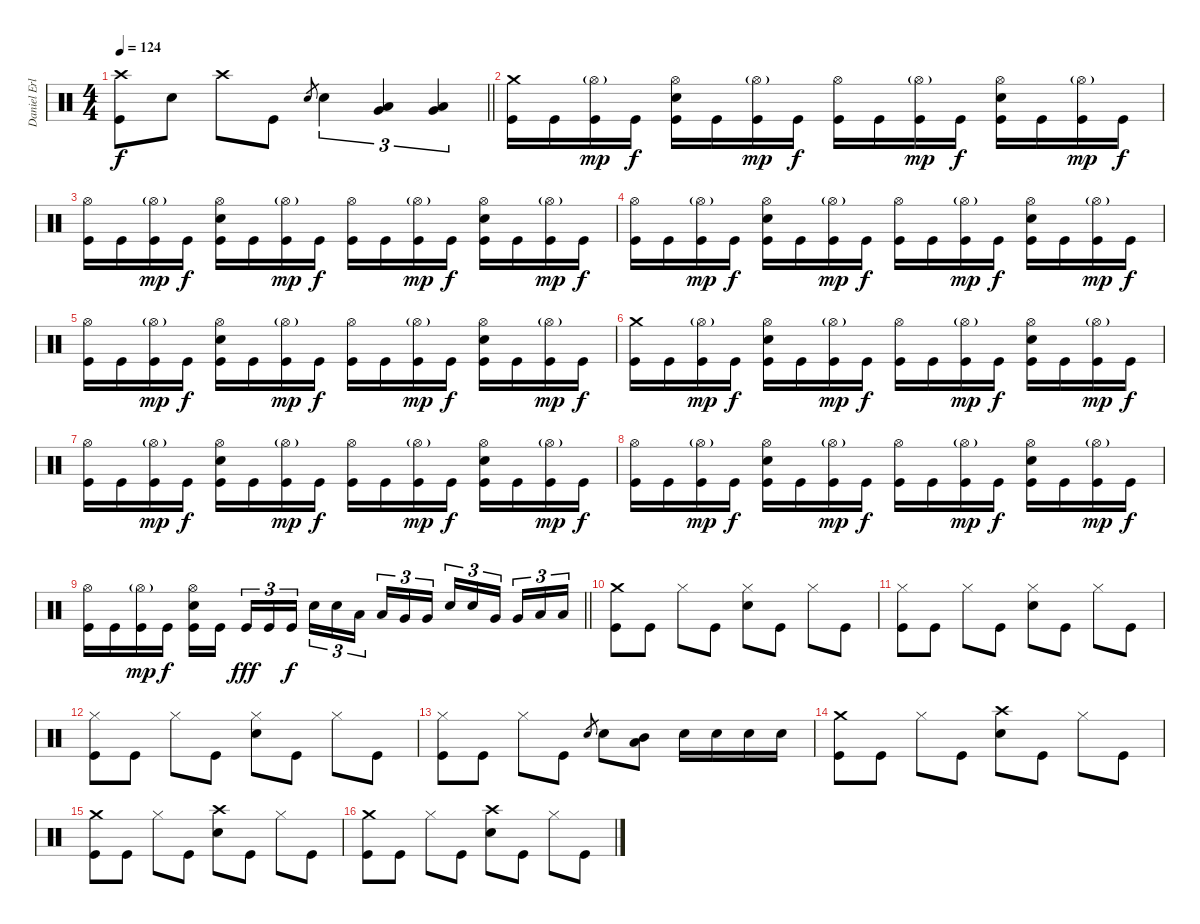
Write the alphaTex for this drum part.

\track ("Daniel Erlandsson" "Daniel Erl") {instrument percussion}
\staff {score}
\articulation defaults
\ts (4 4)
\tempo 124
\clef neutral
\barLineRight lightlight
\ks c
("Crash high (hit)" "Kick (hit)").8{dy f} "Snare (hit) 2".8 "Crash high (hit)".8 "Kick (hit)".8 "Snare (hit) 2".8{gr} "Snare (hit) 2".4{tu (3 2)} ("Low Tom (hit)" "Very Low Tom (hit)").4{tu (3 2)} ("Very Low Tom (hit)" "Low Floor Tom (hit)").4{tu (3 2)} |
\section ("" "")
("Crash medium (hit)" "Kick (hit)").16 "Kick (hit)".16 ("Hi-Hat (open)"{g} "Kick (hit)").16{dy mp} "Kick (hit)".16{dy f} ("Hi-Hat (open)" "Snare (hit) 2" "Kick (hit)").16 "Kick (hit)".16 ("Hi-Hat (open)"{g} "Kick (hit)").16{dy mp} "Kick (hit)".16{dy f} ("Hi-Hat (open)" "Kick (hit)").16 "Kick (hit)".16 ("Hi-Hat (open)"{g} "Kick (hit)").16{dy mp} "Kick (hit)".16{dy f} ("Hi-Hat (open)" "Snare (hit) 2" "Kick (hit)").16 "Kick (hit)".16 ("Hi-Hat (open)"{g} "Kick (hit)").16{dy mp} "Kick (hit)".16{dy f} |
("Hi-Hat (open)" "Kick (hit)").16 "Kick (hit)".16 ("Hi-Hat (open)"{g} "Kick (hit)").16{dy mp} "Kick (hit)".16{dy f} ("Hi-Hat (open)" "Snare (hit) 2" "Kick (hit)").16 "Kick (hit)".16 ("Hi-Hat (open)"{g} "Kick (hit)").16{dy mp} "Kick (hit)".16{dy f} ("Hi-Hat (open)" "Kick (hit)").16 "Kick (hit)".16 ("Hi-Hat (open)"{g} "Kick (hit)").16{dy mp} "Kick (hit)".16{dy f} ("Hi-Hat (open)" "Snare (hit) 2" "Kick (hit)").16 "Kick (hit)".16 ("Hi-Hat (open)"{g} "Kick (hit)").16{dy mp} "Kick (hit)".16{dy f} |
("Hi-Hat (open)" "Kick (hit)").16 "Kick (hit)".16 ("Hi-Hat (open)"{g} "Kick (hit)").16{dy mp} "Kick (hit)".16{dy f} ("Hi-Hat (open)" "Snare (hit) 2" "Kick (hit)").16 "Kick (hit)".16 ("Hi-Hat (open)"{g} "Kick (hit)").16{dy mp} "Kick (hit)".16{dy f} ("Hi-Hat (open)" "Kick (hit)").16 "Kick (hit)".16 ("Hi-Hat (open)"{g} "Kick (hit)").16{dy mp} "Kick (hit)".16{dy f} ("Hi-Hat (open)" "Snare (hit) 2" "Kick (hit)").16 "Kick (hit)".16 ("Hi-Hat (open)"{g} "Kick (hit)").16{dy mp} "Kick (hit)".16{dy f} |
("Hi-Hat (open)" "Kick (hit)").16 "Kick (hit)".16 ("Hi-Hat (open)"{g} "Kick (hit)").16{dy mp} "Kick (hit)".16{dy f} ("Hi-Hat (open)" "Snare (hit) 2" "Kick (hit)").16 "Kick (hit)".16 ("Hi-Hat (open)"{g} "Kick (hit)").16{dy mp} "Kick (hit)".16{dy f} ("Hi-Hat (open)" "Kick (hit)").16 "Kick (hit)".16 ("Hi-Hat (open)"{g} "Kick (hit)").16{dy mp} "Kick (hit)".16{dy f} ("Hi-Hat (open)" "Snare (hit) 2" "Kick (hit)").16 "Kick (hit)".16 ("Hi-Hat (open)"{g} "Kick (hit)").16{dy mp} "Kick (hit)".16{dy f} |
("Crash medium (hit)" "Kick (hit)").16 "Kick (hit)".16 ("Hi-Hat (open)"{g} "Kick (hit)").16{dy mp} "Kick (hit)".16{dy f} ("Hi-Hat (open)" "Snare (hit) 2" "Kick (hit)").16 "Kick (hit)".16 ("Hi-Hat (open)"{g} "Kick (hit)").16{dy mp} "Kick (hit)".16{dy f} ("Hi-Hat (open)" "Kick (hit)").16 "Kick (hit)".16 ("Hi-Hat (open)"{g} "Kick (hit)").16{dy mp} "Kick (hit)".16{dy f} ("Hi-Hat (open)" "Snare (hit) 2" "Kick (hit)").16 "Kick (hit)".16 ("Hi-Hat (open)"{g} "Kick (hit)").16{dy mp} "Kick (hit)".16{dy f} |
("Hi-Hat (open)" "Kick (hit)").16 "Kick (hit)".16 ("Hi-Hat (open)"{g} "Kick (hit)").16{dy mp} "Kick (hit)".16{dy f} ("Hi-Hat (open)" "Snare (hit) 2" "Kick (hit)").16 "Kick (hit)".16 ("Hi-Hat (open)"{g} "Kick (hit)").16{dy mp} "Kick (hit)".16{dy f} ("Hi-Hat (open)" "Kick (hit)").16 "Kick (hit)".16 ("Hi-Hat (open)"{g} "Kick (hit)").16{dy mp} "Kick (hit)".16{dy f} ("Hi-Hat (open)" "Snare (hit) 2" "Kick (hit)").16 "Kick (hit)".16 ("Hi-Hat (open)"{g} "Kick (hit)").16{dy mp} "Kick (hit)".16{dy f} |
("Hi-Hat (open)" "Kick (hit)").16 "Kick (hit)".16 ("Hi-Hat (open)"{g} "Kick (hit)").16{dy mp} "Kick (hit)".16{dy f} ("Hi-Hat (open)" "Snare (hit) 2" "Kick (hit)").16 "Kick (hit)".16 ("Hi-Hat (open)"{g} "Kick (hit)").16{dy mp} "Kick (hit)".16{dy f} ("Hi-Hat (open)" "Kick (hit)").16 "Kick (hit)".16 ("Hi-Hat (open)"{g} "Kick (hit)").16{dy mp} "Kick (hit)".16{dy f} ("Hi-Hat (open)" "Snare (hit) 2" "Kick (hit)").16 "Kick (hit)".16 ("Hi-Hat (open)"{g} "Kick (hit)").16{dy mp} "Kick (hit)".16{dy f} |
\barLineRight lightlight
("Hi-Hat (open)" "Kick (hit)").16 "Kick (hit)".16 ("Hi-Hat (open)"{g} "Kick (hit)").16{dy mp} "Kick (hit)".16{dy f} ("Hi-Hat (open)" "Snare (hit) 2" "Kick (hit)").16 "Kick (hit)".16{beam splitsecondary} "Kick (hit)".16{tu (3 2) dy fff} "Kick (hit)".16{tu (3 2)} "Kick (hit)".16{tu (3 2) dy f} "Snare (hit) 2".16{tu (3 2)} "Snare (hit) 2".16{tu (3 2)} "Low Tom (hit)".16{tu (3 2) beam splitsecondary} "Low Tom (hit)".16{tu (3 2)} "Very Low Tom (hit)".16{tu (3 2)} "Very Low Tom (hit)".16{tu (3 2)} "Snare (hit) 2".16{tu (3 2)} "Snare (hit) 2".16{tu (3 2)} "Very Low Tom (hit)".16{tu (3 2) beam splitsecondary} "Very Low Tom (hit)".16{tu (3 2)} "Low Floor Tom (hit)".16{tu (3 2)} "Low Floor Tom (hit)".16{tu (3 2)} |
\section ("" "")
("Crash medium (hit)" "Kick (hit)").8 "Kick (hit)".8 "Hi-Hat (closed)".8 "Kick (hit)".8 ("Hi-Hat (closed)" "Snare (hit) 2").8 "Kick (hit)".8 "Hi-Hat (closed)".8 "Kick (hit)".8 |
("Hi-Hat (closed)" "Kick (hit)").8 "Kick (hit)".8 "Hi-Hat (closed)".8 "Kick (hit)".8 ("Hi-Hat (closed)" "Snare (hit) 2").8 "Kick (hit)".8 "Hi-Hat (closed)".8 "Kick (hit)".8 |
("Hi-Hat (closed)" "Kick (hit)").8 "Kick (hit)".8 "Hi-Hat (closed)".8 "Kick (hit)".8 ("Hi-Hat (closed)" "Snare (hit) 2").8 "Kick (hit)".8 "Hi-Hat (closed)".8 "Kick (hit)".8 |
("Hi-Hat (closed)" "Kick (hit)").8 "Kick (hit)".8 "Hi-Hat (closed)".8 "Kick (hit)".8 "Snare (hit) 2".8{gr} "Snare (hit) 2".8 ("Mid Tom (hit)" "Low Tom (hit)").8 "Snare (hit) 2".16 "Snare (hit) 2".16 "Snare (hit) 2".16 "Snare (hit) 2".16 |
("Crash medium (hit)" "Kick (hit)").8 "Kick (hit)".8 "Hi-Hat (closed)".8 "Kick (hit)".8 ("Crash high (hit)" "Snare (hit) 2").8 "Kick (hit)".8 "Hi-Hat (closed)".8 "Kick (hit)".8 |
("Crash medium (hit)" "Kick (hit)").8 "Kick (hit)".8 "Hi-Hat (closed)".8 "Kick (hit)".8 ("Crash high (hit)" "Snare (hit) 2").8 "Kick (hit)".8 "Hi-Hat (closed)".8 "Kick (hit)".8 |
("Crash medium (hit)" "Kick (hit)").8 "Kick (hit)".8 "Hi-Hat (closed)".8 "Kick (hit)".8 ("Crash high (hit)" "Snare (hit) 2").8 "Kick (hit)".8 "Hi-Hat (closed)".8 "Kick (hit)".8
